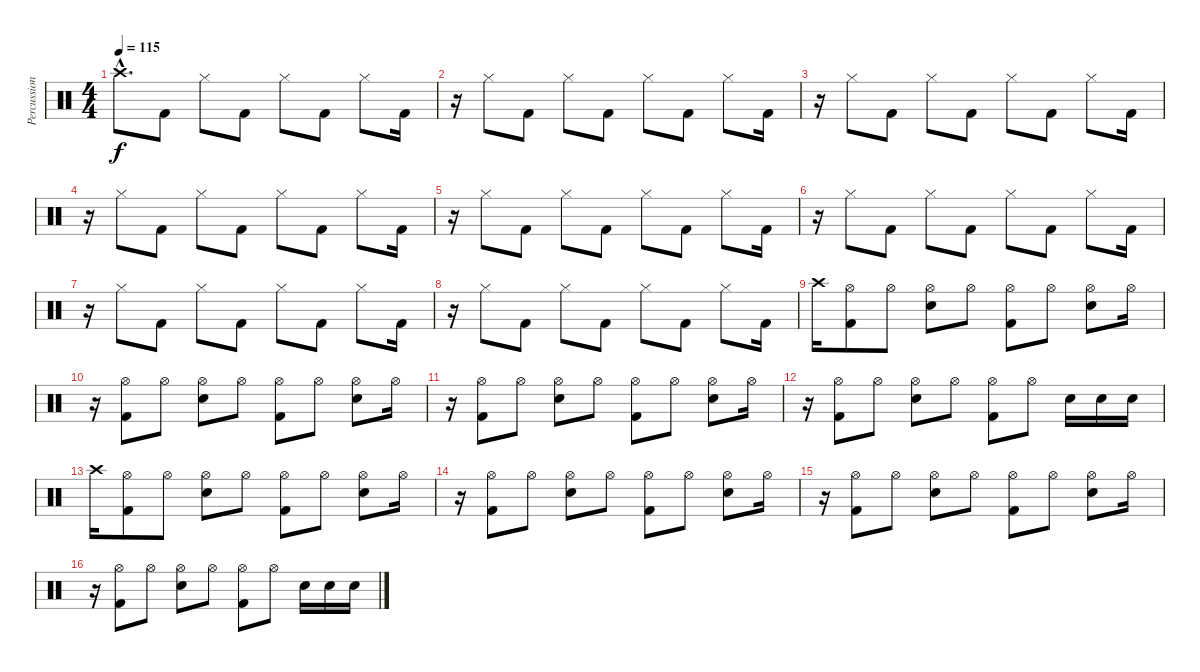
\track ("Percussion" "Percussion") {instrument percussion}
\staff {score}
\articulation defaults
\ts (4 4)
\tempo 115
\clef neutral
\ks c "Crash high (hit)"{hac}.8{d dy f} "Kick (hit) 2".8 "Hi-Hat (closed)".8 "Kick (hit) 2".8 "Hi-Hat (closed)".8 "Kick (hit) 2".8 "Hi-Hat (closed)".8 "Kick (hit) 2".16
|
r.16 "Hi-Hat (closed)".8 "Kick (hit) 2".8 "Hi-Hat (closed)".8 "Kick (hit) 2".8 "Hi-Hat (closed)".8 "Kick (hit) 2".8 "Hi-Hat (closed)".8 "Kick (hit) 2".16 |
r.16 "Hi-Hat (closed)".8 "Kick (hit) 2".8 "Hi-Hat (closed)".8 "Kick (hit) 2".8 "Hi-Hat (closed)".8 "Kick (hit) 2".8 "Hi-Hat (closed)".8 "Kick (hit) 2".16 |
r.16 "Hi-Hat (closed)".8 "Kick (hit) 2".8 "Hi-Hat (closed)".8 "Kick (hit) 2".8 "Hi-Hat (closed)".8 "Kick (hit) 2".8 "Hi-Hat (closed)".8 "Kick (hit) 2".16 |
r.16 "Hi-Hat (closed)".8 "Kick (hit) 2".8 "Hi-Hat (closed)".8 "Kick (hit) 2".8 "Hi-Hat (closed)".8 "Kick (hit) 2".8 "Hi-Hat (closed)".8 "Kick (hit) 2".16 |
r.16 "Hi-Hat (closed)".8 "Kick (hit) 2".8 "Hi-Hat (closed)".8 "Kick (hit) 2".8 "Hi-Hat (closed)".8 "Kick (hit) 2".8 "Hi-Hat (closed)".8 "Kick (hit) 2".16 |
r.16 "Hi-Hat (closed)".8 "Kick (hit) 2".8 "Hi-Hat (closed)".8 "Kick (hit) 2".8 "Hi-Hat (closed)".8 "Kick (hit) 2".8 "Hi-Hat (closed)".8 "Kick (hit) 2".16 |
r.16 "Hi-Hat (closed)".8 "Kick (hit) 2".8 "Hi-Hat (closed)".8 "Kick (hit) 2".8 "Hi-Hat (closed)".8 "Kick (hit) 2".8 "Hi-Hat (closed)".8 "Kick (hit) 2".16 |
"Crash high (hit)".16 ("Hi-Hat (open)" "Kick (hit) 2").8 "Hi-Hat (open)".8 ("Hi-Hat (open)" "Snare (hit) 2").8 "Hi-Hat (open)".8 ("Hi-Hat (open)" "Kick (hit) 2").8 "Hi-Hat (open)".8 ("Hi-Hat (open)" "Snare (hit) 2").8 "Hi-Hat (open)".16 |
r.16 ("Hi-Hat (open)" "Kick (hit) 2").8 "Hi-Hat (open)".8 ("Hi-Hat (open)" "Snare (hit) 2").8 "Hi-Hat (open)".8 ("Hi-Hat (open)" "Kick (hit) 2").8 "Hi-Hat (open)".8 ("Hi-Hat (open)" "Snare (hit) 2").8 "Hi-Hat (open)".16 |
r.16 ("Hi-Hat (open)" "Kick (hit) 2").8 "Hi-Hat (open)".8 ("Hi-Hat (open)" "Snare (hit) 2").8 "Hi-Hat (open)".8 ("Hi-Hat (open)" "Kick (hit) 2").8 "Hi-Hat (open)".8 ("Hi-Hat (open)" "Snare (hit) 2").8 "Hi-Hat (open)".16 |
r.16 ("Hi-Hat (open)" "Kick (hit) 2").8 "Hi-Hat (open)".8 ("Hi-Hat (open)" "Snare (hit) 2").8 "Hi-Hat (open)".8 ("Hi-Hat (open)" "Kick (hit) 2").8 "Hi-Hat (open)".8 "Snare (hit) 2".16 "Snare (hit) 2".16 "Snare (hit) 2".16 |
"Crash high (hit)".16 ("Hi-Hat (open)" "Kick (hit) 2").8 "Hi-Hat (open)".8 ("Hi-Hat (open)" "Snare (hit) 2").8 "Hi-Hat (open)".8 ("Hi-Hat (open)" "Kick (hit) 2").8 "Hi-Hat (open)".8 ("Hi-Hat (open)" "Snare (hit) 2").8 "Hi-Hat (open)".16 |
r.16 ("Hi-Hat (open)" "Kick (hit) 2").8 "Hi-Hat (open)".8 ("Hi-Hat (open)" "Snare (hit) 2").8 "Hi-Hat (open)".8 ("Hi-Hat (open)" "Kick (hit) 2").8 "Hi-Hat (open)".8 ("Hi-Hat (open)" "Snare (hit) 2").8 "Hi-Hat (open)".16 |
r.16 ("Hi-Hat (open)" "Kick (hit) 2").8 "Hi-Hat (open)".8 ("Hi-Hat (open)" "Snare (hit) 2").8 "Hi-Hat (open)".8 ("Hi-Hat (open)" "Kick (hit) 2").8 "Hi-Hat (open)".8 ("Hi-Hat (open)" "Snare (hit) 2").8 "Hi-Hat (open)".16 |
r.16 ("Hi-Hat (open)" "Kick (hit) 2").8 "Hi-Hat (open)".8 ("Hi-Hat (open)" "Snare (hit) 2").8 "Hi-Hat (open)".8 ("Hi-Hat (open)" "Kick (hit) 2").8 "Hi-Hat (open)".8 "Snare (hit) 2".16 "Snare (hit) 2".16 "Snare (hit) 2".16
